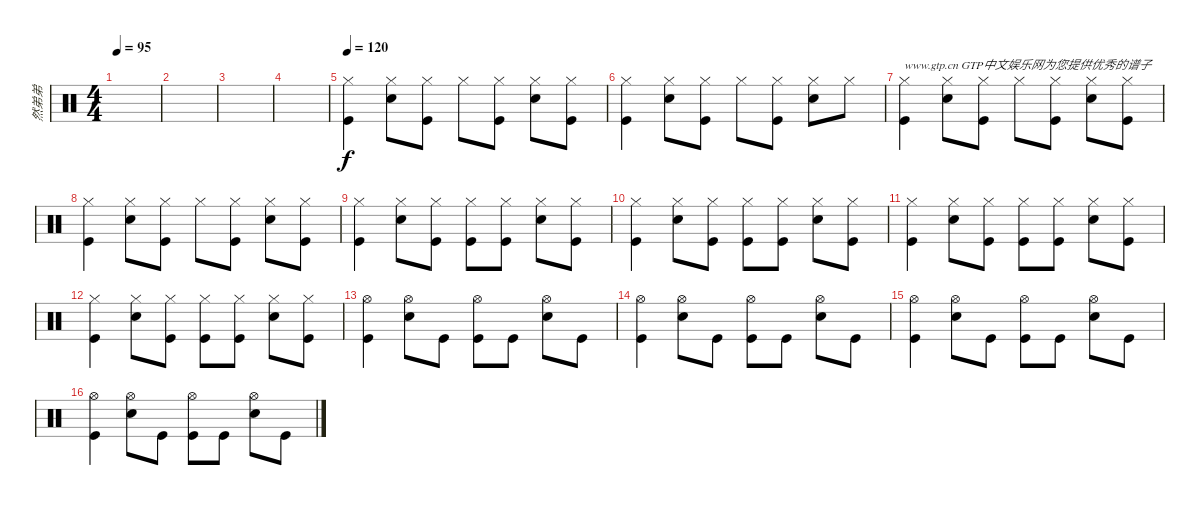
\track ("然弟弟" "然弟弟") {instrument percussion}
\staff {score}
\articulation defaults
\ts (4 4)
\tempo 95
\clef neutral
\ks c
|
|
|
|
\tempo 120
("Hi-Hat (closed)" "Kick (hit)").4 ("Hi-Hat (closed)" "Electric Snare (hit)").8 ("Hi-Hat (closed)" "Kick (hit)").8 "Hi-Hat (closed)".8 ("Hi-Hat (closed)" "Kick (hit)").8 ("Hi-Hat (closed)" "Electric Snare (hit)").8 ("Hi-Hat (closed)" "Kick (hit)").8 |
("Hi-Hat (closed)" "Kick (hit)").4 ("Hi-Hat (closed)" "Electric Snare (hit)").8 ("Hi-Hat (closed)" "Kick (hit)").8 "Hi-Hat (closed)".8 ("Hi-Hat (closed)" "Kick (hit)").8 ("Hi-Hat (closed)" "Electric Snare (hit)").8 "Hi-Hat (closed)".8 |
("Hi-Hat (closed)" "Kick (hit)").4{txt "www.gtp.cn GTP中文娱乐网为您提供优秀的谱子"} ("Hi-Hat (closed)" "Electric Snare (hit)").8 ("Hi-Hat (closed)" "Kick (hit)").8 "Hi-Hat (closed)".8 ("Hi-Hat (closed)" "Kick (hit)").8 ("Hi-Hat (closed)" "Electric Snare (hit)").8 ("Hi-Hat (closed)" "Kick (hit)").8 |
("Hi-Hat (closed)" "Kick (hit)").4 ("Hi-Hat (closed)" "Electric Snare (hit)").8 ("Hi-Hat (closed)" "Kick (hit)").8 "Hi-Hat (closed)".8 ("Hi-Hat (closed)" "Kick (hit)").8 ("Hi-Hat (closed)" "Electric Snare (hit)").8 ("Hi-Hat (closed)" "Kick (hit)").8 |
("Hi-Hat (closed)" "Kick (hit)").4 ("Hi-Hat (closed)" "Electric Snare (hit)").8 ("Hi-Hat (closed)" "Kick (hit)").8 ("Hi-Hat (closed)" "Kick (hit)").8 ("Hi-Hat (closed)" "Kick (hit)").8 ("Hi-Hat (closed)" "Electric Snare (hit)").8 ("Hi-Hat (closed)" "Kick (hit)").8 |
("Hi-Hat (closed)" "Kick (hit)").4 ("Hi-Hat (closed)" "Electric Snare (hit)").8 ("Hi-Hat (closed)" "Kick (hit)").8 ("Hi-Hat (closed)" "Kick (hit)").8 ("Hi-Hat (closed)" "Kick (hit)").8 ("Hi-Hat (closed)" "Electric Snare (hit)").8 ("Hi-Hat (closed)" "Kick (hit)").8 |
("Hi-Hat (closed)" "Kick (hit)").4 ("Hi-Hat (closed)" "Electric Snare (hit)").8 ("Hi-Hat (closed)" "Kick (hit)").8 ("Hi-Hat (closed)" "Kick (hit)").8 ("Hi-Hat (closed)" "Kick (hit)").8 ("Hi-Hat (closed)" "Electric Snare (hit)").8 ("Hi-Hat (closed)" "Kick (hit)").8 |
("Hi-Hat (closed)" "Kick (hit)").4 ("Hi-Hat (closed)" "Electric Snare (hit)").8 ("Hi-Hat (closed)" "Kick (hit)").8 ("Hi-Hat (closed)" "Kick (hit)").8 ("Hi-Hat (closed)" "Kick (hit)").8 ("Hi-Hat (closed)" "Electric Snare (hit)").8 ("Hi-Hat (closed)" "Kick (hit)").8 |
("Hi-Hat (open)" "Kick (hit)").4 ("Hi-Hat (open)" "Electric Snare (hit)").8 "Kick (hit)".8 ("Hi-Hat (open)" "Kick (hit)").8 "Kick (hit)".8 ("Hi-Hat (open)" "Electric Snare (hit)").8 "Kick (hit)".8 |
("Hi-Hat (open)" "Kick (hit)").4 ("Hi-Hat (open)" "Electric Snare (hit)").8 "Kick (hit)".8 ("Hi-Hat (open)" "Kick (hit)").8 "Kick (hit)".8 ("Hi-Hat (open)" "Electric Snare (hit)").8 "Kick (hit)".8 |
("Hi-Hat (open)" "Kick (hit)").4 ("Hi-Hat (open)" "Electric Snare (hit)").8 "Kick (hit)".8 ("Hi-Hat (open)" "Kick (hit)").8 "Kick (hit)".8 ("Hi-Hat (open)" "Electric Snare (hit)").8 "Kick (hit)".8 |
("Hi-Hat (open)" "Kick (hit)").4 ("Hi-Hat (open)" "Electric Snare (hit)").8 "Kick (hit)".8 ("Hi-Hat (open)" "Kick (hit)").8 "Kick (hit)".8 ("Hi-Hat (open)" "Electric Snare (hit)").8 "Kick (hit)".8
